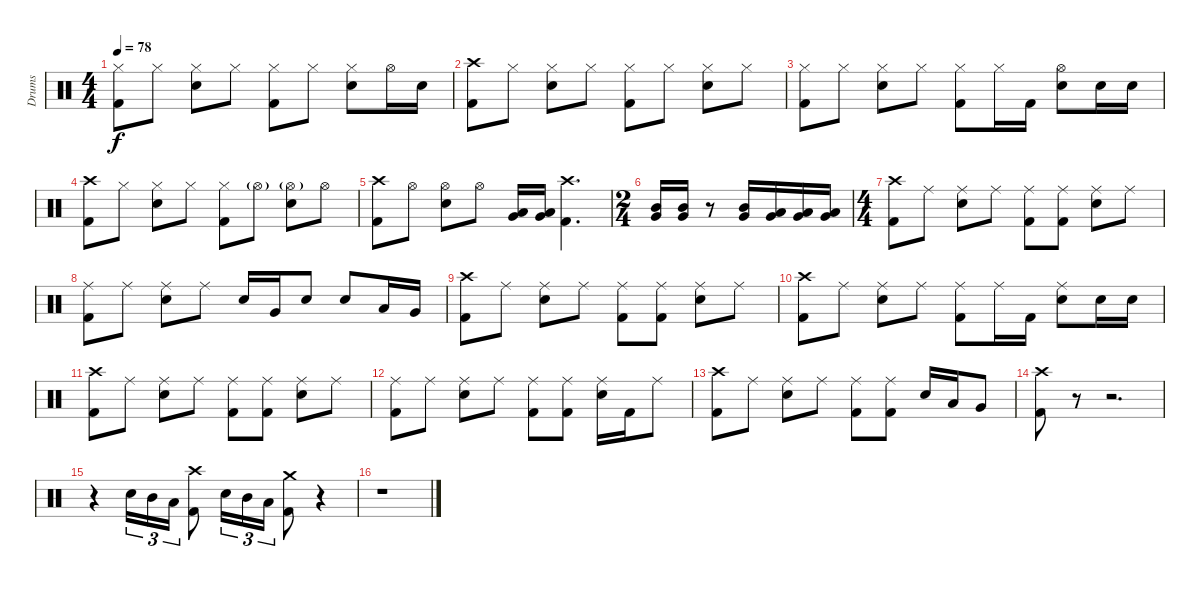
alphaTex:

\track ("Drums" "Drums") {instrument percussion}
\staff {score}
\articulation defaults
\ts (4 4)
\tempo 78
\clef neutral
\ks c
("Hi-Hat (closed)" "Kick (hit) 2").8{dy f} "Hi-Hat (closed)".8 ("Hi-Hat (closed)" "Snare (hit) 2").8 "Hi-Hat (closed)".8 ("Hi-Hat (closed)" "Kick (hit) 2").8 "Hi-Hat (closed)".8 ("Hi-Hat (closed)" "Snare (hit) 2").8 "Hi-Hat (open)".16 "Snare (hit) 2".16 |
("Crash high (hit)" "Kick (hit) 2").8 "Hi-Hat (closed)".8 ("Hi-Hat (closed)" "Snare (hit) 2").8 "Hi-Hat (closed)".8 ("Hi-Hat (closed)" "Kick (hit) 2").8 "Hi-Hat (closed)".8 ("Hi-Hat (closed)" "Snare (hit) 2").8 "Hi-Hat (closed)".8 |
("Hi-Hat (closed)" "Kick (hit) 2").8 "Hi-Hat (closed)".8 ("Hi-Hat (closed)" "Snare (hit) 2").8 "Hi-Hat (closed)".8 ("Hi-Hat (closed)" "Kick (hit) 2").8 "Hi-Hat (closed)".16 "Kick (hit) 2".16 ("Hi-Hat (open)" "Snare (hit) 2").8 "Snare (hit) 2".16 "Snare (hit) 2".16 |
("Crash high (hit)" "Kick (hit) 2").8 "Hi-Hat (closed)".8 ("Hi-Hat (closed)" "Snare (hit) 2").8 "Hi-Hat (closed)".8 ("Hi-Hat (closed)" "Kick (hit) 2").8 "Hi-Hat (open)"{g}.8 ("Hi-Hat (open)"{g} "Snare (hit) 2").8 "Hi-Hat (open)".8 |
("Crash high (hit)" "Kick (hit) 2").8 "Hi-Hat (open)".8 ("Hi-Hat (open)" "Snare (hit) 2").8 "Hi-Hat (open)".8 ("Low Tom (hit)" "Very Low Tom (hit)").16 ("Low Tom (hit)" "Very Low Tom (hit)").16 ("Crash high (hit)" "Kick (hit) 2").4{d} |
\ts (2 4)
("Mid Tom (hit)" "Very Low Tom (hit)").16{bd 240} ("Mid Tom (hit)" "Very Low Tom (hit)").16 r.8 ("Mid Tom (hit)" "Very Low Tom (hit)").16{bd 240} ("Low Tom (hit)" "Very Low Tom (hit)").16 ("Very Low Tom (hit)" "Low Floor Tom (hit)").16{bd 240} ("Very Low Tom (hit)" "Low Floor Tom (hit)").16 |
\ts (4 4)
("Crash high (hit)" "Kick (hit) 2").8 "Ride (middle)".8 ("Ride (middle)" "Snare (hit) 2").8 "Ride (middle)".8 ("Ride (middle)" "Kick (hit) 2").8 ("Ride (middle)" "Kick (hit) 2").8 ("Ride (middle)" "Snare (hit) 2").8 "Ride (middle)".8 |
("Ride (middle)" "Kick (hit) 2").8 "Ride (middle)".8 ("Ride (middle)" "Snare (hit) 2").8 "Ride (middle)".8 "Snare (hit) 2".16 "Very Low Tom (hit)".16 "Snare (hit) 2".8 "Snare (hit) 2".8 "Low Tom (hit)".16 "Very Low Tom (hit)".16 |
("Crash high (hit)" "Kick (hit) 2").8 "Ride (middle)".8 ("Ride (middle)" "Snare (hit) 2").8 "Ride (middle)".8 ("Ride (middle)" "Kick (hit) 2").8 ("Ride (middle)" "Kick (hit) 2").8 ("Ride (middle)" "Snare (hit) 2").8 "Ride (middle)".8 |
("Crash high (hit)" "Kick (hit) 2").8 "Ride (middle)".8 ("Ride (middle)" "Snare (hit) 2").8 "Ride (middle)".8 ("Ride (middle)" "Kick (hit) 2").8 "Ride (middle)".16 "Kick (hit) 2".16 ("Ride (middle)" "Snare (hit) 2").8 "Snare (hit) 2".16 "Snare (hit) 2".16 |
("Crash high (hit)" "Kick (hit) 2").8 "Ride (middle)".8 ("Ride (middle)" "Snare (hit) 2").8 "Ride (middle)".8 ("Ride (middle)" "Kick (hit) 2").8 ("Ride (middle)" "Kick (hit) 2").8 ("Ride (middle)" "Snare (hit) 2").8 "Ride (middle)".8 |
("Ride (middle)" "Kick (hit) 2").8 "Ride (middle)".8 ("Ride (middle)" "Snare (hit) 2").8 "Ride (middle)".8 ("Ride (middle)" "Kick (hit) 2").8 ("Ride (middle)" "Kick (hit) 2").8 ("Ride (middle)" "Snare (hit) 2").16 "Kick (hit) 2".16 "Ride (middle)".8 |
("Crash high (hit)" "Kick (hit) 2").8 "Ride (middle)".8 ("Ride (middle)" "Snare (hit) 2").8 "Ride (middle)".8 ("Ride (middle)" "Kick (hit) 2").8 ("Ride (middle)" "Kick (hit) 2").8 "Snare (hit) 2".16 "Low Tom (hit)".16 "Very Low Tom (hit)".8 |
("Crash high (hit)" "Kick (hit) 2").8 r.8 r.2{d} |
r.4 "Snare (hit) 2".16{tu (3 2)} "Mid Tom (hit)".16{tu (3 2)} "Low Tom (hit)".16{tu (3 2)} ("Crash high (hit)" "Kick (hit) 2").8 "Snare (hit) 2".16{tu (3 2)} "Mid Tom (hit)".16{tu (3 2)} "Low Tom (hit)".16{tu (3 2)} ("Crash medium (hit)" "Kick (hit) 2").8 r.4 |
r.1
